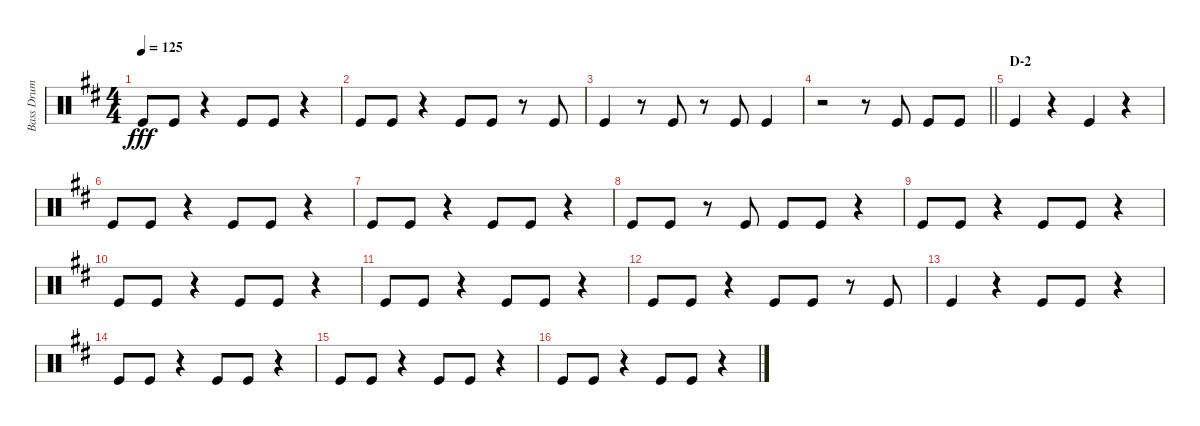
\track ("Bass Drum" "Bass Drum") {instrument percussion}
\staff {score}
\articulation defaults
\ts (4 4)
\tempo 125
\clef neutral
\ks d "Kick (hit)".8{dy fff} "Kick (hit)".8
r.4 "Kick (hit)".8 "Kick (hit)".8 r.4 |
"Kick (hit)".8 "Kick (hit)".8 r.4 "Kick (hit)".8 "Kick (hit)".8 r.8 "Kick (hit)".8 |
"Kick (hit)".4 r.8 "Kick (hit)".8 r.8 "Kick (hit)".8 "Kick (hit)".4 |
\barLineRight lightlight
r.2 r.8 "Kick (hit)".8 "Kick (hit)".8 "Kick (hit)".8 |
\section ("" "D-2")
"Kick (hit)".4 r.4 "Kick (hit)".4 r.4 |
"Kick (hit)".8 "Kick (hit)".8 r.4 "Kick (hit)".8 "Kick (hit)".8 r.4 |
"Kick (hit)".8 "Kick (hit)".8 r.4 "Kick (hit)".8 "Kick (hit)".8 r.4 |
"Kick (hit)".8 "Kick (hit)".8 r.8 "Kick (hit)".8 "Kick (hit)".8 "Kick (hit)".8 r.4 |
"Kick (hit)".8 "Kick (hit)".8 r.4 "Kick (hit)".8 "Kick (hit)".8 r.4 |
"Kick (hit)".8 "Kick (hit)".8 r.4 "Kick (hit)".8 "Kick (hit)".8 r.4 |
"Kick (hit)".8 "Kick (hit)".8 r.4 "Kick (hit)".8 "Kick (hit)".8 r.4 |
"Kick (hit)".8 "Kick (hit)".8 r.4 "Kick (hit)".8 "Kick (hit)".8 r.8 "Kick (hit)".8 |
"Kick (hit)".4 r.4 "Kick (hit)".8 "Kick (hit)".8 r.4 |
"Kick (hit)".8 "Kick (hit)".8 r.4 "Kick (hit)".8 "Kick (hit)".8 r.4 |
"Kick (hit)".8 "Kick (hit)".8 r.4 "Kick (hit)".8 "Kick (hit)".8 r.4 |
"Kick (hit)".8 "Kick (hit)".8 r.4 "Kick (hit)".8 "Kick (hit)".8 r.4
